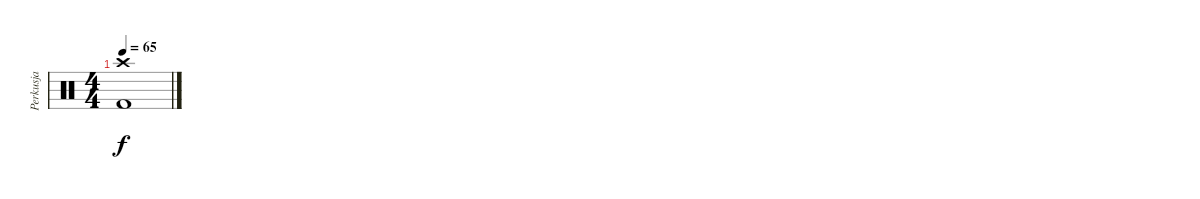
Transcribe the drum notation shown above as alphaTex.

\track ("Perkusja" "Perkusja") {instrument percussion}
\staff {score}
\articulation defaults
\ts (4 4)
\tempo 65
\clef neutral
\ks c
("Crash high (hit)" "Kick (hit) 2").1{dy f}
